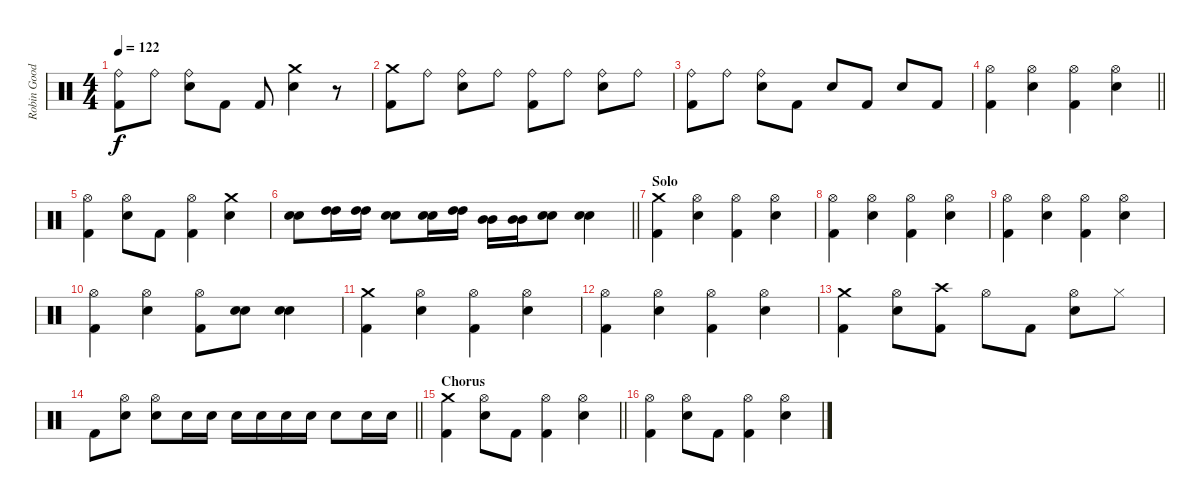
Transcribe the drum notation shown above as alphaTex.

\track ("Robin Goodridge: Drums" "Robin Good") {instrument percussion}
\staff {score}
\articulation defaults
\ts (4 4)
\tempo 122
\clef neutral
\ks c
("Ride (bell)" "Kick (hit) 2").8{dy f} "Ride (bell)".8 ("Ride (bell)" "Electric Snare (hit)").8 "Kick (hit) 2".8 "Kick (hit) 2".8 ("Crash medium (hit)" "Electric Snare (hit)").4 r.8 |
("Crash medium (hit)" "Kick (hit) 2").8 "Ride (bell)".8 ("Ride (bell)" "Electric Snare (hit)").8 "Ride (bell)".8 ("Ride (bell)" "Kick (hit) 2").8 "Ride (bell)".8 ("Ride (bell)" "Electric Snare (hit)").8 "Ride (bell)".8 |
("Ride (bell)" "Kick (hit) 2").8 "Ride (bell)".8 ("Ride (bell)" "Electric Snare (hit)").8 "Kick (hit) 2".8 "Electric Snare (hit)".8 "Kick (hit) 2".8 "Electric Snare (hit)".8 "Kick (hit) 2".8 |
\barLineRight lightlight
("Hi-Hat (open)" "Kick (hit) 2").4 ("Hi-Hat (open)" "Electric Snare (hit)").4 ("Hi-Hat (open)" "Kick (hit) 2").4 ("Hi-Hat (open)" "Electric Snare (hit)").4 |
("Hi-Hat (open)" "Kick (hit) 2").4 ("Hi-Hat (open)" "Electric Snare (hit)").8 "Kick (hit) 2".8 ("Hi-Hat (open)" "Kick (hit) 2").4 ("Crash medium (hit)" "Electric Snare (hit)").4 |
\barLineRight lightlight
("Electric Snare (hit)" "Electric Snare (hit)").8 ("High Tom (hit)" "High Tom (hit)").16 ("High Tom (hit)" "High Tom (hit)").16 ("Electric Snare (hit)" "Electric Snare (hit)").8 ("Electric Snare (hit)" "Electric Snare (hit)").16 ("High Tom (hit)" "High Tom (hit)").16 ("Mid Tom (hit)" "Mid Tom (hit)").16 ("Mid Tom (hit)" "Mid Tom (hit)").16 ("Electric Snare (hit)" "Electric Snare (hit)").8 ("Electric Snare (hit)" "Electric Snare (hit)").4 |
\section ("" "Solo")
("Crash medium (hit)" "Kick (hit) 2").4 ("Hi-Hat (open)" "Electric Snare (hit)").4 ("Hi-Hat (open)" "Kick (hit) 2").4 ("Hi-Hat (open)" "Electric Snare (hit)").4 |
("Hi-Hat (open)" "Kick (hit) 2").4 ("Hi-Hat (open)" "Electric Snare (hit)").4 ("Hi-Hat (open)" "Kick (hit) 2").4 ("Hi-Hat (open)" "Electric Snare (hit)").4 |
("Hi-Hat (open)" "Kick (hit) 2").4 ("Hi-Hat (open)" "Electric Snare (hit)").4 ("Hi-Hat (open)" "Kick (hit) 2").4 ("Hi-Hat (open)" "Electric Snare (hit)").4 |
("Hi-Hat (open)" "Kick (hit) 2").4 ("Hi-Hat (open)" "Electric Snare (hit)").4 ("Hi-Hat (open)" "Kick (hit) 2").8 ("Electric Snare (hit)" "Electric Snare (hit)").8 ("Electric Snare (hit)" "Electric Snare (hit)").4 |
("Crash medium (hit)" "Kick (hit) 2").4 ("Hi-Hat (open)" "Electric Snare (hit)").4 ("Hi-Hat (open)" "Kick (hit) 2").4 ("Hi-Hat (open)" "Electric Snare (hit)").4 |
("Hi-Hat (open)" "Kick (hit) 2").4 ("Hi-Hat (open)" "Electric Snare (hit)").4 ("Hi-Hat (open)" "Kick (hit) 2").4 ("Hi-Hat (open)" "Electric Snare (hit)").4 |
("Crash medium (hit)" "Kick (hit) 2").4 ("Hi-Hat (open)" "Electric Snare (hit)").8 ("Crash high (hit)" "Kick (hit) 2").8 "Hi-Hat (open)".8 "Kick (hit) 2".8 ("Hi-Hat (open)" "Electric Snare (hit)").8 "Hi-Hat (closed)".8 |
\barLineRight lightlight "Kick (hit) 2".8
("Hi-Hat (open)" "Electric Snare (hit)").8 ("Hi-Hat (open)" "Electric Snare (hit)").8 "Electric Snare (hit)".16 "Electric Snare (hit)".16 "Electric Snare (hit)".16 "Electric Snare (hit)".16 "Electric Snare (hit)".16 "Electric Snare (hit)".16 "Electric Snare (hit)".8 "Electric Snare (hit)".16 "Electric Snare (hit)".16 |
\section ("" "Chorus")
\barLineRight lightlight
("Crash medium (hit)" "Kick (hit) 2").4 ("Hi-Hat (open)" "Electric Snare (hit)").8 "Kick (hit) 2".8 ("Hi-Hat (open)" "Kick (hit) 2").4 ("Hi-Hat (open)" "Electric Snare (hit)").4 |
("Hi-Hat (open)" "Kick (hit) 2").4 ("Hi-Hat (open)" "Electric Snare (hit)").8 "Kick (hit) 2".8 ("Hi-Hat (open)" "Kick (hit) 2").4 ("Hi-Hat (open)" "Electric Snare (hit)").4
